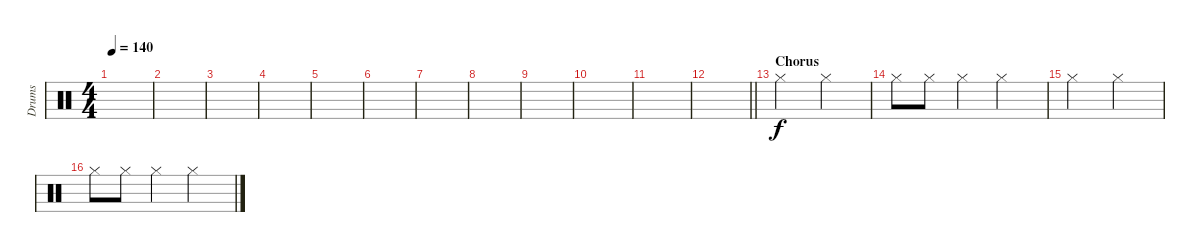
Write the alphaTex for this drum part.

\track ("Drums" "Drums") {instrument percussion}
\staff {score}
\articulation defaults
\ts (4 4)
\tempo 140
\clef neutral
\ks c
|
|
|
|
|
|
|
|
|
|
|
\barLineRight lightlight
|
\section ("" "Chorus")
"Hi-Hat (closed)".2 "Hi-Hat (closed)".2 |
"Hi-Hat (closed)".8 "Hi-Hat (closed)".8 "Hi-Hat (closed)".4 "Hi-Hat (closed)".2 |
"Hi-Hat (closed)".2 "Hi-Hat (closed)".2 |
"Hi-Hat (closed)".8 "Hi-Hat (closed)".8 "Hi-Hat (closed)".4 "Hi-Hat (closed)".2
